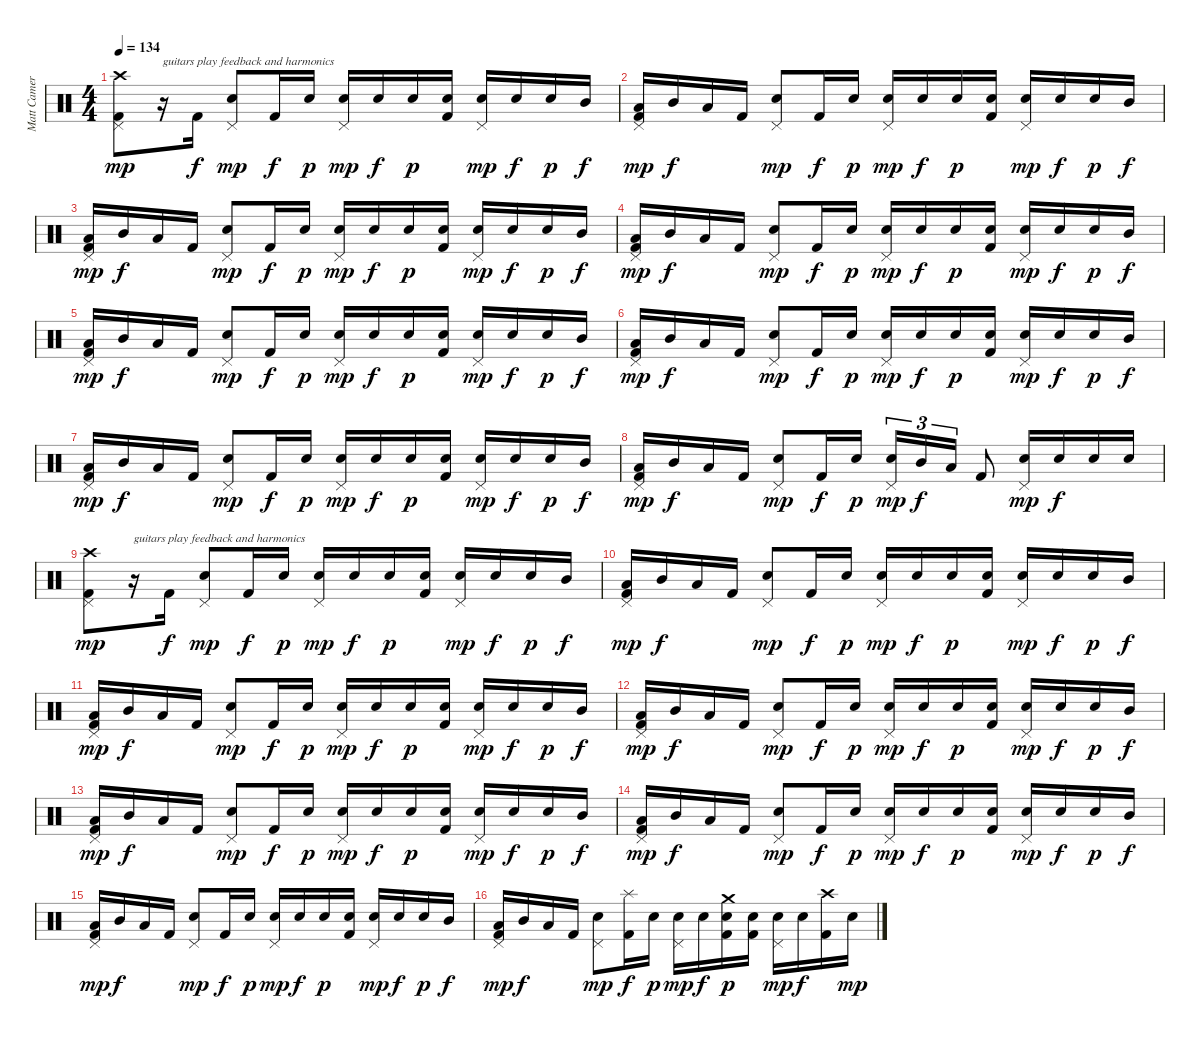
\track ("Matt Cameron" "Matt Camer") {instrument percussion}
\staff {score}
\articulation defaults
\ts (4 4)
\tempo 134
\clef neutral
\ks c
("Crash high (hit)" "Pedal Hi-Hat (hit)" "Kick (hit) 2").8{dy mp} r.16{txt "guitars play feedback and harmonics"} "Kick (hit) 2".16{dy f} ("Electric Snare (hit)" "Pedal Hi-Hat (hit)").8{dy mp} "Kick (hit) 2".16{dy f} "Electric Snare (hit)".16{dy p} ("Electric Snare (hit)" "Pedal Hi-Hat (hit)").16{dy mp} "Electric Snare (hit)".16{dy f} "Electric Snare (hit)".16{dy p} ("Electric Snare (hit)" "Kick (hit) 2").16 ("Electric Snare (hit)" "Pedal Hi-Hat (hit)").16{dy mp} "Electric Snare (hit)".16{dy f} "Electric Snare (hit)".16{dy p} "Mid Tom (hit)".16{dy f} |
("Low Tom (hit)" "Pedal Hi-Hat (hit)" "Kick (hit) 2").16{dy mp} "Mid Tom (hit)".16{dy f} "Low Tom (hit)".16 "Kick (hit) 2".16 ("Electric Snare (hit)" "Pedal Hi-Hat (hit)").8{dy mp} "Kick (hit) 2".16{dy f} "Electric Snare (hit)".16{dy p} ("Electric Snare (hit)" "Pedal Hi-Hat (hit)").16{dy mp} "Electric Snare (hit)".16{dy f} "Electric Snare (hit)".16{dy p} ("Electric Snare (hit)" "Kick (hit) 2").16 ("Electric Snare (hit)" "Pedal Hi-Hat (hit)").16{dy mp} "Electric Snare (hit)".16{dy f} "Electric Snare (hit)".16{dy p} "Mid Tom (hit)".16{dy f} |
("Low Tom (hit)" "Pedal Hi-Hat (hit)" "Kick (hit) 2").16{dy mp} "Mid Tom (hit)".16{dy f} "Low Tom (hit)".16 "Kick (hit) 2".16 ("Electric Snare (hit)" "Pedal Hi-Hat (hit)").8{dy mp} "Kick (hit) 2".16{dy f} "Electric Snare (hit)".16{dy p} ("Electric Snare (hit)" "Pedal Hi-Hat (hit)").16{dy mp} "Electric Snare (hit)".16{dy f} "Electric Snare (hit)".16{dy p} ("Electric Snare (hit)" "Kick (hit) 2").16 ("Electric Snare (hit)" "Pedal Hi-Hat (hit)").16{dy mp} "Electric Snare (hit)".16{dy f} "Electric Snare (hit)".16{dy p} "Mid Tom (hit)".16{dy f} |
("Low Tom (hit)" "Pedal Hi-Hat (hit)" "Kick (hit) 2").16{dy mp} "Mid Tom (hit)".16{dy f} "Low Tom (hit)".16 "Kick (hit) 2".16 ("Electric Snare (hit)" "Pedal Hi-Hat (hit)").8{dy mp} "Kick (hit) 2".16{dy f} "Electric Snare (hit)".16{dy p} ("Electric Snare (hit)" "Pedal Hi-Hat (hit)").16{dy mp} "Electric Snare (hit)".16{dy f} "Electric Snare (hit)".16{dy p} ("Electric Snare (hit)" "Kick (hit) 2").16 ("Electric Snare (hit)" "Pedal Hi-Hat (hit)").16{dy mp} "Electric Snare (hit)".16{dy f} "Electric Snare (hit)".16{dy p} "Mid Tom (hit)".16{dy f} |
("Low Tom (hit)" "Pedal Hi-Hat (hit)" "Kick (hit) 2").16{dy mp} "Mid Tom (hit)".16{dy f} "Low Tom (hit)".16 "Kick (hit) 2".16 ("Electric Snare (hit)" "Pedal Hi-Hat (hit)").8{dy mp} "Kick (hit) 2".16{dy f} "Electric Snare (hit)".16{dy p} ("Electric Snare (hit)" "Pedal Hi-Hat (hit)").16{dy mp} "Electric Snare (hit)".16{dy f} "Electric Snare (hit)".16{dy p} ("Electric Snare (hit)" "Kick (hit) 2").16 ("Electric Snare (hit)" "Pedal Hi-Hat (hit)").16{dy mp} "Electric Snare (hit)".16{dy f} "Electric Snare (hit)".16{dy p} "Mid Tom (hit)".16{dy f} |
("Low Tom (hit)" "Pedal Hi-Hat (hit)" "Kick (hit) 2").16{dy mp} "Mid Tom (hit)".16{dy f} "Low Tom (hit)".16 "Kick (hit) 2".16 ("Electric Snare (hit)" "Pedal Hi-Hat (hit)").8{dy mp} "Kick (hit) 2".16{dy f} "Electric Snare (hit)".16{dy p} ("Electric Snare (hit)" "Pedal Hi-Hat (hit)").16{dy mp} "Electric Snare (hit)".16{dy f} "Electric Snare (hit)".16{dy p} ("Electric Snare (hit)" "Kick (hit) 2").16 ("Electric Snare (hit)" "Pedal Hi-Hat (hit)").16{dy mp} "Electric Snare (hit)".16{dy f} "Electric Snare (hit)".16{dy p} "Mid Tom (hit)".16{dy f} |
("Low Tom (hit)" "Pedal Hi-Hat (hit)" "Kick (hit) 2").16{dy mp} "Mid Tom (hit)".16{dy f} "Low Tom (hit)".16 "Kick (hit) 2".16 ("Electric Snare (hit)" "Pedal Hi-Hat (hit)").8{dy mp} "Kick (hit) 2".16{dy f} "Electric Snare (hit)".16{dy p} ("Electric Snare (hit)" "Pedal Hi-Hat (hit)").16{dy mp} "Electric Snare (hit)".16{dy f} "Electric Snare (hit)".16{dy p} ("Electric Snare (hit)" "Kick (hit) 2").16 ("Electric Snare (hit)" "Pedal Hi-Hat (hit)").16{dy mp} "Electric Snare (hit)".16{dy f} "Electric Snare (hit)".16{dy p} "Mid Tom (hit)".16{dy f} |
("Low Tom (hit)" "Pedal Hi-Hat (hit)" "Kick (hit) 2").16{dy mp} "Mid Tom (hit)".16{dy f} "Low Tom (hit)".16 "Kick (hit) 2".16 ("Electric Snare (hit)" "Pedal Hi-Hat (hit)").8{dy mp} "Kick (hit) 2".16{dy f} "Electric Snare (hit)".16{dy p} ("Electric Snare (hit)" "Pedal Hi-Hat (hit)").16{tu (3 2) dy mp} "Mid Tom (hit)".16{tu (3 2) dy f} "Low Tom (hit)".16{tu (3 2)} "Kick (hit) 2".8 ("Electric Snare (hit)" "Pedal Hi-Hat (hit)").16{dy mp} "Electric Snare (hit)".16{dy f} "Electric Snare (hit)".16 "Electric Snare (hit)".16 |
("Crash high (hit)" "Pedal Hi-Hat (hit)" "Kick (hit) 2").8{dy mp} r.16{txt "guitars play feedback and harmonics"} "Kick (hit) 2".16{dy f} ("Electric Snare (hit)" "Pedal Hi-Hat (hit)").8{dy mp} "Kick (hit) 2".16{dy f} "Electric Snare (hit)".16{dy p} ("Electric Snare (hit)" "Pedal Hi-Hat (hit)").16{dy mp} "Electric Snare (hit)".16{dy f} "Electric Snare (hit)".16{dy p} ("Electric Snare (hit)" "Kick (hit) 2").16 ("Electric Snare (hit)" "Pedal Hi-Hat (hit)").16{dy mp} "Electric Snare (hit)".16{dy f} "Electric Snare (hit)".16{dy p} "Mid Tom (hit)".16{dy f} |
("Low Tom (hit)" "Pedal Hi-Hat (hit)" "Kick (hit) 2").16{dy mp} "Mid Tom (hit)".16{dy f} "Low Tom (hit)".16 "Kick (hit) 2".16 ("Electric Snare (hit)" "Pedal Hi-Hat (hit)").8{dy mp} "Kick (hit) 2".16{dy f} "Electric Snare (hit)".16{dy p} ("Electric Snare (hit)" "Pedal Hi-Hat (hit)").16{dy mp} "Electric Snare (hit)".16{dy f} "Electric Snare (hit)".16{dy p} ("Electric Snare (hit)" "Kick (hit) 2").16 ("Electric Snare (hit)" "Pedal Hi-Hat (hit)").16{dy mp} "Electric Snare (hit)".16{dy f} "Electric Snare (hit)".16{dy p} "Mid Tom (hit)".16{dy f} |
("Low Tom (hit)" "Pedal Hi-Hat (hit)" "Kick (hit) 2").16{dy mp} "Mid Tom (hit)".16{dy f} "Low Tom (hit)".16 "Kick (hit) 2".16 ("Electric Snare (hit)" "Pedal Hi-Hat (hit)").8{dy mp} "Kick (hit) 2".16{dy f} "Electric Snare (hit)".16{dy p} ("Electric Snare (hit)" "Pedal Hi-Hat (hit)").16{dy mp} "Electric Snare (hit)".16{dy f} "Electric Snare (hit)".16{dy p} ("Electric Snare (hit)" "Kick (hit) 2").16 ("Electric Snare (hit)" "Pedal Hi-Hat (hit)").16{dy mp} "Electric Snare (hit)".16{dy f} "Electric Snare (hit)".16{dy p} "Mid Tom (hit)".16{dy f} |
("Low Tom (hit)" "Pedal Hi-Hat (hit)" "Kick (hit) 2").16{dy mp} "Mid Tom (hit)".16{dy f} "Low Tom (hit)".16 "Kick (hit) 2".16 ("Electric Snare (hit)" "Pedal Hi-Hat (hit)").8{dy mp} "Kick (hit) 2".16{dy f} "Electric Snare (hit)".16{dy p} ("Electric Snare (hit)" "Pedal Hi-Hat (hit)").16{dy mp} "Electric Snare (hit)".16{dy f} "Electric Snare (hit)".16{dy p} ("Electric Snare (hit)" "Kick (hit) 2").16 ("Electric Snare (hit)" "Pedal Hi-Hat (hit)").16{dy mp} "Electric Snare (hit)".16{dy f} "Electric Snare (hit)".16{dy p} "Mid Tom (hit)".16{dy f} |
("Low Tom (hit)" "Pedal Hi-Hat (hit)" "Kick (hit) 2").16{dy mp} "Mid Tom (hit)".16{dy f} "Low Tom (hit)".16 "Kick (hit) 2".16 ("Electric Snare (hit)" "Pedal Hi-Hat (hit)").8{dy mp} "Kick (hit) 2".16{dy f} "Electric Snare (hit)".16{dy p} ("Electric Snare (hit)" "Pedal Hi-Hat (hit)").16{dy mp} "Electric Snare (hit)".16{dy f} "Electric Snare (hit)".16{dy p} ("Electric Snare (hit)" "Kick (hit) 2").16 ("Electric Snare (hit)" "Pedal Hi-Hat (hit)").16{dy mp} "Electric Snare (hit)".16{dy f} "Electric Snare (hit)".16{dy p} "Mid Tom (hit)".16{dy f} |
("Low Tom (hit)" "Pedal Hi-Hat (hit)" "Kick (hit) 2").16{dy mp} "Mid Tom (hit)".16{dy f} "Low Tom (hit)".16 "Kick (hit) 2".16 ("Electric Snare (hit)" "Pedal Hi-Hat (hit)").8{dy mp} "Kick (hit) 2".16{dy f} "Electric Snare (hit)".16{dy p} ("Electric Snare (hit)" "Pedal Hi-Hat (hit)").16{dy mp} "Electric Snare (hit)".16{dy f} "Electric Snare (hit)".16{dy p} ("Electric Snare (hit)" "Kick (hit) 2").16 ("Electric Snare (hit)" "Pedal Hi-Hat (hit)").16{dy mp} "Electric Snare (hit)".16{dy f} "Electric Snare (hit)".16{dy p} "Mid Tom (hit)".16{dy f} |
("Low Tom (hit)" "Pedal Hi-Hat (hit)" "Kick (hit) 2").16{dy mp} "Mid Tom (hit)".16{dy f} "Low Tom (hit)".16 "Kick (hit) 2".16 ("Electric Snare (hit)" "Pedal Hi-Hat (hit)").8{dy mp} "Kick (hit) 2".16{dy f} "Electric Snare (hit)".16{dy p} ("Electric Snare (hit)" "Pedal Hi-Hat (hit)").16{dy mp} "Electric Snare (hit)".16{dy f} "Electric Snare (hit)".16{dy p} ("Electric Snare (hit)" "Kick (hit) 2").16 ("Electric Snare (hit)" "Pedal Hi-Hat (hit)").16{dy mp} "Electric Snare (hit)".16{dy f} "Electric Snare (hit)".16{dy p} "Mid Tom (hit)".16{dy f} |
("Low Tom (hit)" "Pedal Hi-Hat (hit)" "Kick (hit) 2").16{dy mp} "Mid Tom (hit)".16{dy f} "Low Tom (hit)".16 "Kick (hit) 2".16 ("Electric Snare (hit)" "Pedal Hi-Hat (hit)").8{dy mp} ("Splash (hit)" "Kick (hit) 2").16{dy f} "Electric Snare (hit)".16{dy p} ("Electric Snare (hit)" "Pedal Hi-Hat (hit)").16{dy mp} "Electric Snare (hit)".16{dy f} ("Crash medium (hit)" "Electric Snare (hit)" "Kick (hit) 2").16{dy p} ("Electric Snare (hit)" "Kick (hit) 2").16 ("Electric Snare (hit)" "Pedal Hi-Hat (hit)").16{dy mp} "Electric Snare (hit)".16{dy f} ("Crash high (hit)" "Kick (hit) 2").16 "Electric Snare (hit)".16{dy mp}
